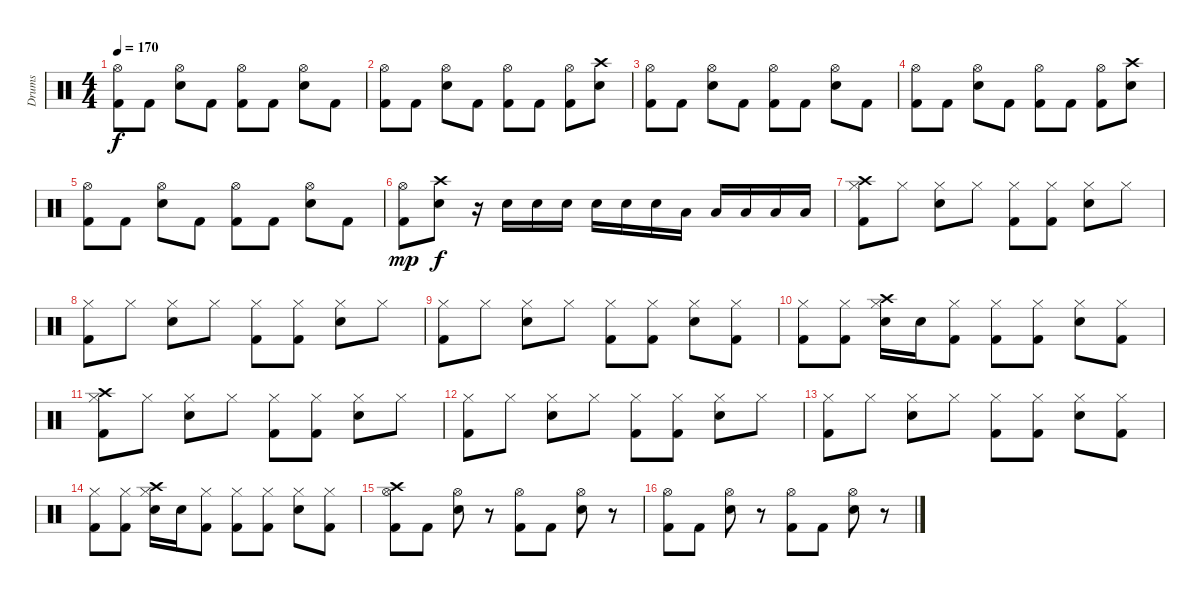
\track ("Drums" "Drums") {instrument percussion}
\staff {score}
\articulation defaults
\ts (4 4)
\tempo 170
\clef neutral
\ks c
("Hi-Hat (open)" "Kick (hit) 2").8{dy f} "Kick (hit) 2".8 ("Hi-Hat (open)" "Electric Snare (hit)").8 "Kick (hit) 2".8 ("Hi-Hat (open)" "Kick (hit) 2").8 "Kick (hit) 2".8 ("Hi-Hat (open)" "Electric Snare (hit)").8 "Kick (hit) 2".8 |
("Hi-Hat (open)" "Kick (hit) 2").8 "Kick (hit) 2".8 ("Hi-Hat (open)" "Electric Snare (hit)").8 "Kick (hit) 2".8 ("Hi-Hat (open)" "Kick (hit) 2").8 "Kick (hit) 2".8 ("Hi-Hat (open)" "Kick (hit) 2").8 ("Crash high (hit)" "Electric Snare (hit)").8 |
("Hi-Hat (open)" "Kick (hit) 2").8 "Kick (hit) 2".8 ("Hi-Hat (open)" "Electric Snare (hit)").8 "Kick (hit) 2".8 ("Hi-Hat (open)" "Kick (hit) 2").8 "Kick (hit) 2".8 ("Hi-Hat (open)" "Electric Snare (hit)").8 "Kick (hit) 2".8 |
("Hi-Hat (open)" "Kick (hit) 2").8 "Kick (hit) 2".8 ("Hi-Hat (open)" "Electric Snare (hit)").8 "Kick (hit) 2".8 ("Hi-Hat (open)" "Kick (hit) 2").8 "Kick (hit) 2".8 ("Hi-Hat (open)" "Kick (hit) 2").8 ("Crash high (hit)" "Electric Snare (hit)").8 |
("Hi-Hat (open)" "Kick (hit) 2").8 "Kick (hit) 2".8 ("Hi-Hat (open)" "Electric Snare (hit)").8 "Kick (hit) 2".8 ("Hi-Hat (open)" "Kick (hit) 2").8 "Kick (hit) 2".8 ("Hi-Hat (open)" "Electric Snare (hit)").8 "Kick (hit) 2".8 |
("Hi-Hat (open)" "Kick (hit) 2").8{dy mp} ("Crash high (hit)" "Snare (hit) 2").8{dy f} r.16 "Snare (hit) 2".16 "Snare (hit) 2".16 "Snare (hit) 2".16 "Snare (hit) 2".16 "Snare (hit) 2".16 "Snare (hit) 2".16 "Low Floor Tom (hit)".16 "Low Floor Tom (hit)".16 "Low Floor Tom (hit)".16 "Low Floor Tom (hit)".16 "Low Floor Tom (hit)".16 |
("Crash high (hit)" "Hi-Hat (closed)" "Kick (hit) 2").8 "Hi-Hat (closed)".8 ("Hi-Hat (closed)" "Electric Snare (hit)").8 "Hi-Hat (closed)".8 ("Hi-Hat (closed)" "Kick (hit) 2").8 ("Hi-Hat (closed)" "Kick (hit) 2").8 ("Hi-Hat (closed)" "Electric Snare (hit)").8 "Hi-Hat (closed)".8 |
("Hi-Hat (closed)" "Kick (hit) 2").8 "Hi-Hat (closed)".8 ("Hi-Hat (closed)" "Electric Snare (hit)").8 "Hi-Hat (closed)".8 ("Hi-Hat (closed)" "Kick (hit) 2").8 ("Hi-Hat (closed)" "Kick (hit) 2").8 ("Hi-Hat (closed)" "Electric Snare (hit)").8 "Hi-Hat (closed)".8 |
("Hi-Hat (closed)" "Kick (hit) 2").8 "Hi-Hat (closed)".8 ("Hi-Hat (closed)" "Electric Snare (hit)").8 "Hi-Hat (closed)".8 ("Hi-Hat (closed)" "Kick (hit) 2").8 ("Hi-Hat (closed)" "Kick (hit) 2").8 ("Hi-Hat (closed)" "Electric Snare (hit)").8 ("Hi-Hat (closed)" "Kick (hit) 2").8 |
("Hi-Hat (closed)" "Kick (hit) 2").8 ("Hi-Hat (closed)" "Kick (hit) 2").8 ("Crash high (hit)" "Hi-Hat (closed)" "Electric Snare (hit)").16 "Electric Snare (hit)".16 ("Hi-Hat (closed)" "Kick (hit) 2").8 ("Hi-Hat (closed)" "Kick (hit) 2").8 ("Hi-Hat (closed)" "Kick (hit) 2").8 ("Hi-Hat (closed)" "Electric Snare (hit)").8 ("Hi-Hat (closed)" "Kick (hit) 2").8 |
("Crash high (hit)" "Hi-Hat (closed)" "Kick (hit) 2").8 "Hi-Hat (closed)".8 ("Hi-Hat (closed)" "Electric Snare (hit)").8 "Hi-Hat (closed)".8 ("Hi-Hat (closed)" "Kick (hit) 2").8 ("Hi-Hat (closed)" "Kick (hit) 2").8 ("Hi-Hat (closed)" "Electric Snare (hit)").8 "Hi-Hat (closed)".8 |
("Hi-Hat (closed)" "Kick (hit) 2").8 "Hi-Hat (closed)".8 ("Hi-Hat (closed)" "Electric Snare (hit)").8 "Hi-Hat (closed)".8 ("Hi-Hat (closed)" "Kick (hit) 2").8 ("Hi-Hat (closed)" "Kick (hit) 2").8 ("Hi-Hat (closed)" "Electric Snare (hit)").8 "Hi-Hat (closed)".8 |
("Hi-Hat (closed)" "Kick (hit) 2").8 "Hi-Hat (closed)".8 ("Hi-Hat (closed)" "Electric Snare (hit)").8 "Hi-Hat (closed)".8 ("Hi-Hat (closed)" "Kick (hit) 2").8 ("Hi-Hat (closed)" "Kick (hit) 2").8 ("Hi-Hat (closed)" "Electric Snare (hit)").8 ("Hi-Hat (closed)" "Kick (hit) 2").8 |
("Hi-Hat (closed)" "Kick (hit) 2").8 ("Hi-Hat (closed)" "Kick (hit) 2").8 ("Crash high (hit)" "Hi-Hat (closed)" "Electric Snare (hit)").16 "Electric Snare (hit)".16 ("Hi-Hat (closed)" "Kick (hit) 2").8 ("Hi-Hat (closed)" "Kick (hit) 2").8 ("Hi-Hat (closed)" "Kick (hit) 2").8 ("Hi-Hat (closed)" "Electric Snare (hit)").8 ("Hi-Hat (closed)" "Kick (hit) 2").8 |
("Crash high (hit)" "Hi-Hat (open)" "Kick (hit) 2").8 "Kick (hit) 2".8 ("Hi-Hat (open)" "Electric Snare (hit)").8 r.8 ("Hi-Hat (open)" "Kick (hit) 2").8 "Kick (hit) 2".8 ("Hi-Hat (open)" "Electric Snare (hit)").8 r.8 |
("Hi-Hat (open)" "Kick (hit) 2").8 "Kick (hit) 2".8 ("Hi-Hat (open)" "Electric Snare (hit)").8 r.8 ("Hi-Hat (open)" "Kick (hit) 2").8 "Kick (hit) 2".8 ("Hi-Hat (open)" "Electric Snare (hit)").8 r.8
